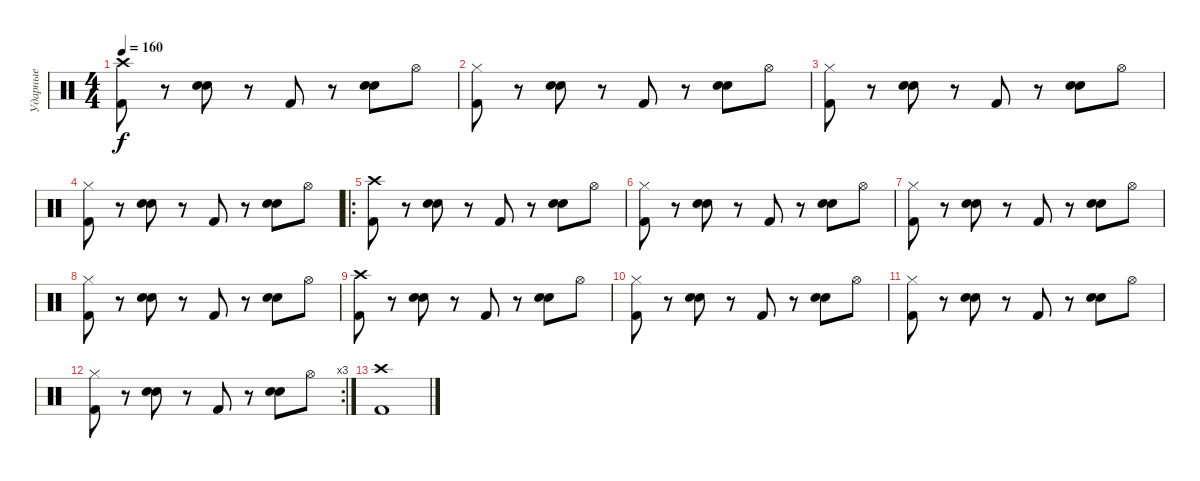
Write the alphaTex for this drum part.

\track ("Ударные" "Ударные") {instrument percussion}
\staff {score}
\articulation defaults
\ts (4 4)
\tempo 160
\clef neutral
\ks c
("Crash high (hit)" "Kick (hit) 2").8{dy f} r.8 ("Hand Clap (hit)" "Electric Snare (hit)").8 r.8 "Kick (hit) 2".8 r.8 ("Hand Clap (hit)" "Electric Snare (hit)").8 "Hi-Hat (open)".8 |
("Hi-Hat (closed)" "Kick (hit) 2").8 r.8 ("Hand Clap (hit)" "Electric Snare (hit)").8 r.8 "Kick (hit) 2".8 r.8 ("Hand Clap (hit)" "Electric Snare (hit)").8 "Hi-Hat (open)".8 |
("Hi-Hat (closed)" "Kick (hit) 2").8 r.8 ("Hand Clap (hit)" "Electric Snare (hit)").8 r.8 "Kick (hit) 2".8 r.8 ("Hand Clap (hit)" "Electric Snare (hit)").8 "Hi-Hat (open)".8 |
("Hi-Hat (closed)" "Kick (hit) 2").8 r.8 ("Hand Clap (hit)" "Electric Snare (hit)").8 r.8 "Kick (hit) 2".8 r.8 ("Hand Clap (hit)" "Electric Snare (hit)").8 "Hi-Hat (open)".8 |
\ro
("Crash high (hit)" "Kick (hit) 2").8 r.8 ("Hand Clap (hit)" "Electric Snare (hit)").8 r.8 "Kick (hit) 2".8 r.8 ("Hand Clap (hit)" "Electric Snare (hit)").8 "Hi-Hat (open)".8 |
("Hi-Hat (closed)" "Kick (hit) 2").8 r.8 ("Hand Clap (hit)" "Electric Snare (hit)").8 r.8 "Kick (hit) 2".8 r.8 ("Hand Clap (hit)" "Electric Snare (hit)").8 "Hi-Hat (open)".8 |
("Hi-Hat (closed)" "Kick (hit) 2").8 r.8 ("Hand Clap (hit)" "Electric Snare (hit)").8 r.8 "Kick (hit) 2".8 r.8 ("Hand Clap (hit)" "Electric Snare (hit)").8 "Hi-Hat (open)".8 |
("Hi-Hat (closed)" "Kick (hit) 2").8 r.8 ("Hand Clap (hit)" "Electric Snare (hit)").8 r.8 "Kick (hit) 2".8 r.8 ("Hand Clap (hit)" "Electric Snare (hit)").8 "Hi-Hat (open)".8 |
("Crash high (hit)" "Kick (hit) 2").8 r.8 ("Hand Clap (hit)" "Electric Snare (hit)").8 r.8 "Kick (hit) 2".8 r.8 ("Hand Clap (hit)" "Electric Snare (hit)").8 "Hi-Hat (open)".8 |
("Hi-Hat (closed)" "Kick (hit) 2").8 r.8 ("Hand Clap (hit)" "Electric Snare (hit)").8 r.8 "Kick (hit) 2".8 r.8 ("Hand Clap (hit)" "Electric Snare (hit)").8 "Hi-Hat (open)".8 |
("Hi-Hat (closed)" "Kick (hit) 2").8 r.8 ("Hand Clap (hit)" "Electric Snare (hit)").8 r.8 "Kick (hit) 2".8 r.8 ("Hand Clap (hit)" "Electric Snare (hit)").8 "Hi-Hat (open)".8 |
\rc 3
("Hi-Hat (closed)" "Kick (hit) 2").8 r.8 ("Hand Clap (hit)" "Electric Snare (hit)").8 r.8 "Kick (hit) 2".8 r.8 ("Hand Clap (hit)" "Electric Snare (hit)").8 "Hi-Hat (open)".8 |
("Crash high (hit)" "Kick (hit) 2").1
